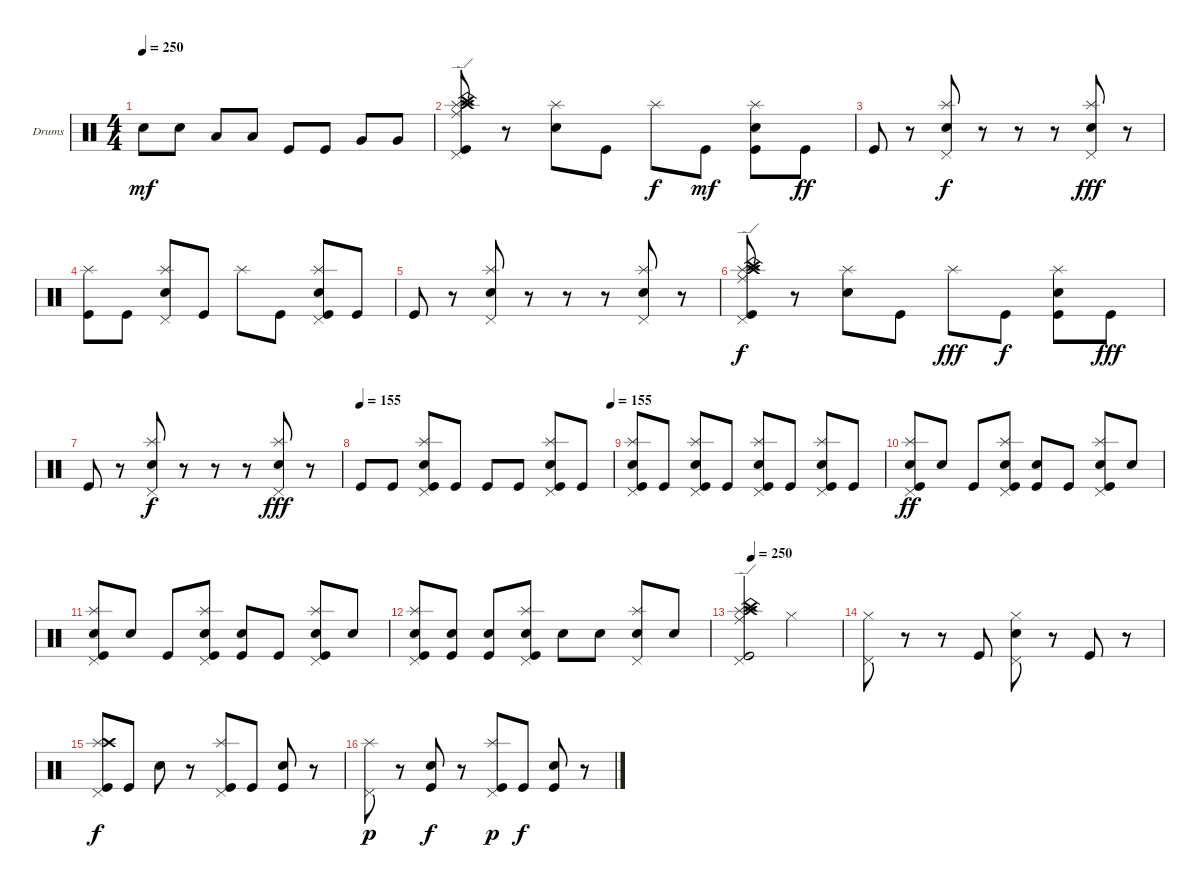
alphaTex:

\defaultSystemsLayout 4
\bracketExtendMode groupsimilarinstruments
\firstSystemTrackNameOrientation horizontal
\otherSystemsTrackNameOrientation horizontal
\track ("Драмки" "Drums") {instrument percussion}
\staff {score}
\articulation defaults
\ts (4 4)
\tempo 250
\clef neutral
\ks c "Snare (hit) 2".8{dy mf} "Snare (hit) 2".8 "Low Tom (hit)".8 "Low Tom (hit)".8 "Kick (hit)".8 "Kick (hit)".8 "Very Low Tom (hit)".8 "Very Low Tom (hit)".8
|
("Kick (hit)" "Splash (hit)" "China (hit)" "Crash high (hit)" "Ride (edge)" "Pedal Hi-Hat (hit)").8 r.8 ("Snare (hit) 2" "Splash (hit)").8 "Kick (hit)".8 "Splash (hit)".8{dy f} "Kick (hit)".8{dy mf} ("Kick (hit)" "Snare (hit) 2" "Splash (hit)").8 "Kick (hit)".8{dy ff} |
"Kick (hit)".8 r.8 ("Snare (hit) 2" "Splash (hit)" "Pedal Hi-Hat (hit)").8{dy f} r.8 r.8 r.8 ("Snare (hit) 2" "Splash (hit)" "Pedal Hi-Hat (hit)").8{dy fff} r.8 |
("Kick (hit)" "Splash (hit)").8 "Kick (hit)".8 ("Snare (hit) 2" "Splash (hit)" "Pedal Hi-Hat (hit)").8 "Kick (hit)".8 "Splash (hit)".8 "Kick (hit)".8 ("Snare (hit) 2" "Splash (hit)" "Pedal Hi-Hat (hit)" "Kick (hit)").8 "Kick (hit)".8 |
"Kick (hit)".8 r.8 ("Splash (hit)" "Pedal Hi-Hat (hit)" "Snare (hit) 2").8 r.8 r.8 r.8 ("Snare (hit) 2" "Pedal Hi-Hat (hit)" "Splash (hit)").8 r.8 |
("Kick (hit)" "Splash (hit)" "China (hit)" "Crash high (hit)" "Ride (edge)" "Pedal Hi-Hat (hit)").8{dy f} r.8 ("Snare (hit) 2" "Splash (hit)").8 "Kick (hit)".8 "Splash (hit)".8{dy fff} "Kick (hit)".8{dy f} ("Kick (hit)" "Snare (hit) 2" "Splash (hit)").8 "Kick (hit)".8{dy fff} |
"Kick (hit)".8 r.8 ("Snare (hit) 2" "Splash (hit)" "Pedal Hi-Hat (hit)").8{dy f} r.8 r.8 r.8 ("Snare (hit) 2" "Splash (hit)" "Pedal Hi-Hat (hit)").8{dy fff} r.8 |
\tempo 155
\tempo (155 0.99375)
"Kick (hit)".8 "Kick (hit)".8 ("Kick (hit)" "Pedal Hi-Hat (hit)" "Splash (hit)" "Snare (hit) 2").8 "Kick (hit)".8 "Kick (hit)".8 "Kick (hit)".8 ("Snare (hit) 2" "Splash (hit)" "Pedal Hi-Hat (hit)" "Kick (hit)").8 "Kick (hit)".8 |
("Snare (hit) 2" "Splash (hit)" "Pedal Hi-Hat (hit)" "Kick (hit)").8 "Kick (hit)".8 ("Snare (hit) 2" "Splash (hit)" "Pedal Hi-Hat (hit)" "Kick (hit)").8 "Kick (hit)".8 ("Snare (hit) 2" "Splash (hit)" "Pedal Hi-Hat (hit)" "Kick (hit)").8 "Kick (hit)".8 ("Snare (hit) 2" "Splash (hit)" "Pedal Hi-Hat (hit)" "Kick (hit)").8 "Kick (hit)".8 |
("Kick (hit)" "Snare (hit) 2" "Splash (hit)" "Pedal Hi-Hat (hit)").8{dy ff} "Snare (hit) 2".8 "Kick (hit)".8 ("Snare (hit) 2" "Kick (hit)" "Splash (hit)" "Pedal Hi-Hat (hit)").8 ("Snare (hit) 2" "Kick (hit)").8 "Kick (hit)".8 ("Snare (hit) 2" "Kick (hit)" "Splash (hit)" "Pedal Hi-Hat (hit)").8 "Snare (hit) 2".8 |
("Snare (hit) 2" "Kick (hit)" "Pedal Hi-Hat (hit)" "Splash (hit)").8 "Snare (hit) 2".8 "Kick (hit)".8 ("Snare (hit) 2" "Kick (hit)" "Splash (hit)" "Pedal Hi-Hat (hit)").8 ("Snare (hit) 2" "Kick (hit)").8 "Kick (hit)".8 ("Splash (hit)" "Pedal Hi-Hat (hit)" "Kick (hit)" "Snare (hit) 2").8 "Snare (hit) 2".8 |
("Snare (hit) 2" "Kick (hit)" "Pedal Hi-Hat (hit)" "Splash (hit)").8 ("Snare (hit) 2" "Kick (hit)").8 ("Kick (hit)" "Snare (hit) 2").8 ("Snare (hit) 2" "Kick (hit)" "Splash (hit)" "Pedal Hi-Hat (hit)").8 "Snare (hit) 2".8 "Snare (hit) 2".8 ("Snare (hit) 2" "Splash (hit)" "Pedal Hi-Hat (hit)").8 "Snare (hit) 2".8 |
\tempo (250 0.075)
("Splash (hit)" "China (hit)" "Crash high (hit)" "Ride (edge)" "Pedal Hi-Hat (hit)" "Kick (hit)").2 "Hi-Hat (closed)".2 |
("Hi-Hat (closed)" "Pedal Hi-Hat (hit)").8 r.8 r.8 "Kick (hit)".8 ("Snare (hit) 2" "Hi-Hat (closed)" "Pedal Hi-Hat (hit)").8 r.8 "Kick (hit)".8 r.8 |
("Kick (hit)" "Splash (hit)" "Crash high (hit)" "Pedal Hi-Hat (hit)").8{dy f} "Kick (hit)".8 "Snare (hit) 2".8 r.8 ("Kick (hit)" "Splash (hit)" "Pedal Hi-Hat (hit)").8 "Kick (hit)".8 ("Kick (hit)" "Snare (hit) 2").8 r.8 |
("Splash (hit)" "Pedal Hi-Hat (hit)").8{dy p} r.8 ("Snare (hit) 2" "Kick (hit)").8{dy f} r.8 ("Kick (hit)" "Splash (hit)" "Pedal Hi-Hat (hit)").8{dy p} "Kick (hit)".8{dy f} ("Snare (hit) 2" "Kick (hit)").8 r.8
